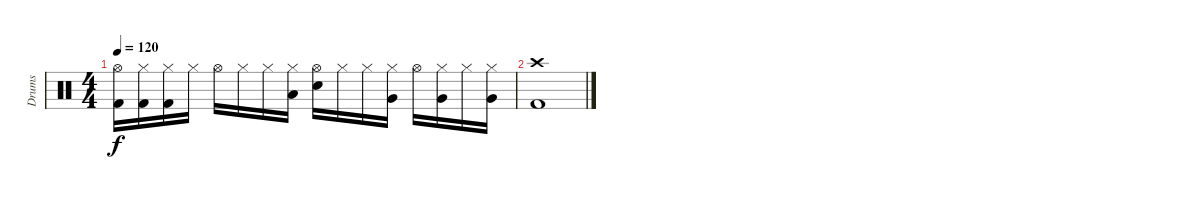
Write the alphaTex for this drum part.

\track ("Drums" "Drums") {instrument percussion}
\staff {score}
\articulation defaults
\ts (4 4)
\tempo 120
\clef neutral
\ks c
("Hi-Hat (open)" "Kick (hit) 2").16{dy f} ("Kick (hit) 2" "Hi-Hat (closed)").16 ("Kick (hit) 2" "Hi-Hat (closed)").16 "Hi-Hat (closed)".16 "Hi-Hat (open)".16 "Hi-Hat (closed)".16 "Hi-Hat (closed)".16 ("Hi-Hat (closed)" "Low Floor Tom (hit)").16 ("Hi-Hat (open)" "Snare (hit) 2").16 "Hi-Hat (closed)".16 "Hi-Hat (closed)".16 ("Very Low Tom (hit)" "Hi-Hat (closed)").16 "Hi-Hat (open)".16 ("Very Low Tom (hit)" "Hi-Hat (closed)").16 "Hi-Hat (closed)".16 ("Very Low Tom (hit)" "Hi-Hat (closed)").16 |
("Kick (hit) 2" "Crash high (hit)").1
